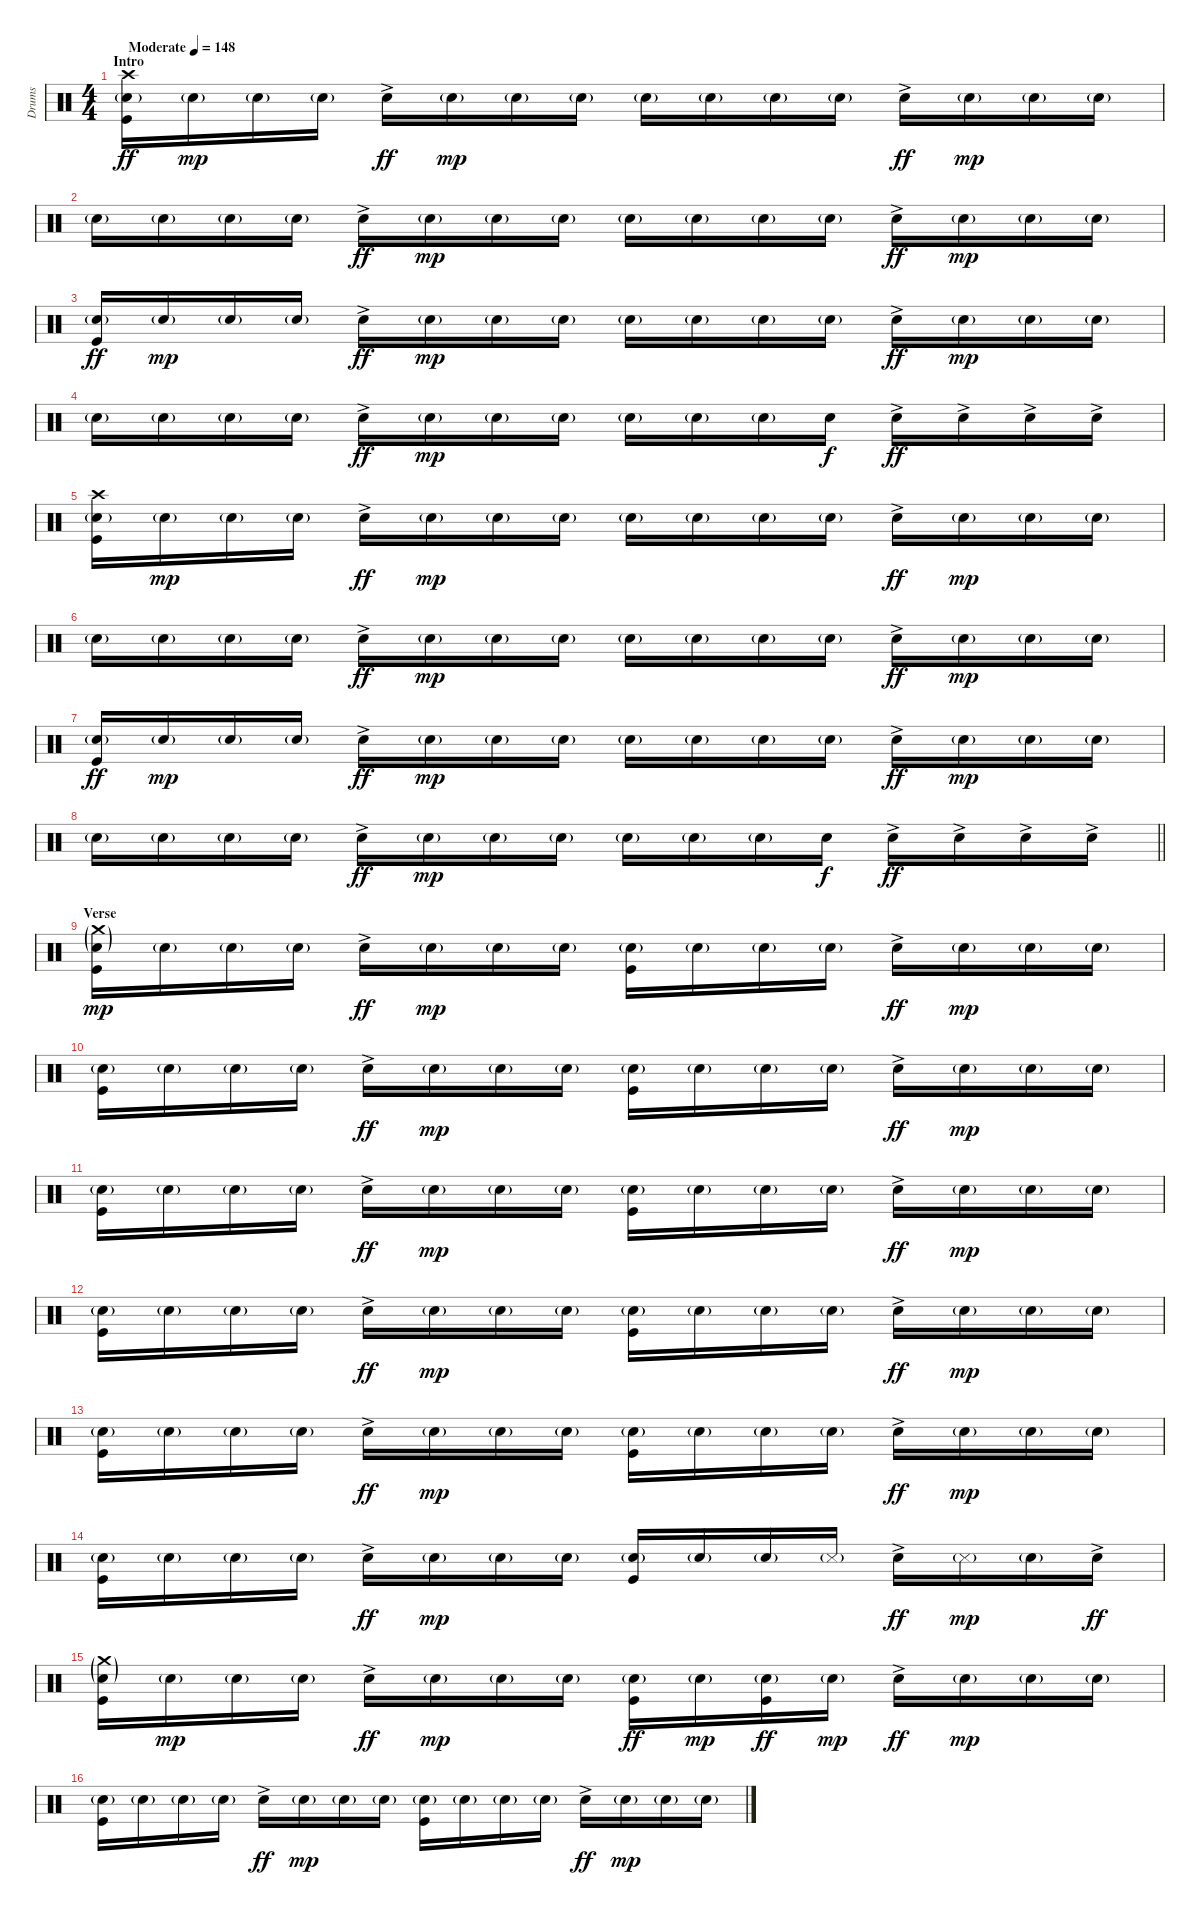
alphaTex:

\track ("Drums" "Drums") {instrument percussion}
\staff {score}
\articulation defaults
\ts (4 4)
\section ("" "Intro")
\tempo (148 "Moderate")
\clef neutral
\ks c
("Crash high (hit)" "Snare (hit) 2"{g} "Kick (hit)").16{dy ff} "Snare (hit) 2"{g}.16{dy mp} "Snare (hit) 2"{g}.16 "Snare (hit) 2"{g}.16 "Electric Snare (hit)"{ac}.16{dy ff} "Snare (hit) 2"{g}.16{dy mp} "Snare (hit) 2"{g}.16 "Snare (hit) 2"{g}.16 "Snare (hit) 2"{g}.16 "Snare (hit) 2"{g}.16 "Snare (hit) 2"{g}.16 "Snare (hit) 2"{g}.16 "Electric Snare (hit)"{ac}.16{dy ff} "Snare (hit) 2"{g}.16{dy mp} "Snare (hit) 2"{g}.16 "Snare (hit) 2"{g}.16 |
"Snare (hit) 2"{g}.16 "Snare (hit) 2"{g}.16 "Snare (hit) 2"{g}.16 "Snare (hit) 2"{g}.16 "Electric Snare (hit)"{ac}.16{dy ff} "Snare (hit) 2"{g}.16{dy mp} "Snare (hit) 2"{g}.16 "Snare (hit) 2"{g}.16 "Snare (hit) 2"{g}.16 "Snare (hit) 2"{g}.16 "Snare (hit) 2"{g}.16 "Snare (hit) 2"{g}.16 "Electric Snare (hit)"{ac}.16{dy ff} "Snare (hit) 2"{g}.16{dy mp} "Snare (hit) 2"{g}.16 "Snare (hit) 2"{g}.16 |
("Snare (hit) 2"{g} "Kick (hit)").16{dy ff} "Snare (hit) 2"{g}.16{dy mp} "Snare (hit) 2"{g}.16 "Snare (hit) 2"{g}.16 "Electric Snare (hit)"{ac}.16{dy ff} "Snare (hit) 2"{g}.16{dy mp} "Snare (hit) 2"{g}.16 "Snare (hit) 2"{g}.16 "Snare (hit) 2"{g}.16 "Snare (hit) 2"{g}.16 "Snare (hit) 2"{g}.16 "Snare (hit) 2"{g}.16 "Electric Snare (hit)"{ac}.16{dy ff} "Snare (hit) 2"{g}.16{dy mp} "Snare (hit) 2"{g}.16 "Snare (hit) 2"{g}.16 |
"Snare (hit) 2"{g}.16 "Snare (hit) 2"{g}.16 "Snare (hit) 2"{g}.16 "Snare (hit) 2"{g}.16 "Electric Snare (hit)"{ac}.16{dy ff} "Snare (hit) 2"{g}.16{dy mp} "Snare (hit) 2"{g}.16 "Snare (hit) 2"{g}.16 "Snare (hit) 2"{g}.16 "Snare (hit) 2"{g}.16 "Snare (hit) 2"{g}.16 "Electric Snare (hit)".16{dy f} "Electric Snare (hit)"{ac}.16{dy ff} "Electric Snare (hit)"{ac}.16 "Electric Snare (hit)"{ac}.16 "Electric Snare (hit)"{ac}.16 |
("Crash high (hit)" "Snare (hit) 2"{g} "Kick (hit)").16 "Snare (hit) 2"{g}.16{dy mp} "Snare (hit) 2"{g}.16 "Snare (hit) 2"{g}.16 "Electric Snare (hit)"{ac}.16{dy ff} "Snare (hit) 2"{g}.16{dy mp} "Snare (hit) 2"{g}.16 "Snare (hit) 2"{g}.16 "Snare (hit) 2"{g}.16 "Snare (hit) 2"{g}.16 "Snare (hit) 2"{g}.16 "Snare (hit) 2"{g}.16 "Electric Snare (hit)"{ac}.16{dy ff} "Snare (hit) 2"{g}.16{dy mp} "Snare (hit) 2"{g}.16 "Snare (hit) 2"{g}.16 |
"Snare (hit) 2"{g}.16 "Snare (hit) 2"{g}.16 "Snare (hit) 2"{g}.16 "Snare (hit) 2"{g}.16 "Electric Snare (hit)"{ac}.16{dy ff} "Snare (hit) 2"{g}.16{dy mp} "Snare (hit) 2"{g}.16 "Snare (hit) 2"{g}.16 "Snare (hit) 2"{g}.16 "Snare (hit) 2"{g}.16 "Snare (hit) 2"{g}.16 "Snare (hit) 2"{g}.16 "Electric Snare (hit)"{ac}.16{dy ff} "Snare (hit) 2"{g}.16{dy mp} "Snare (hit) 2"{g}.16 "Snare (hit) 2"{g}.16 |
("Snare (hit) 2"{g} "Kick (hit)").16{dy ff} "Snare (hit) 2"{g}.16{dy mp} "Snare (hit) 2"{g}.16 "Snare (hit) 2"{g}.16 "Electric Snare (hit)"{ac}.16{dy ff} "Snare (hit) 2"{g}.16{dy mp} "Snare (hit) 2"{g}.16 "Snare (hit) 2"{g}.16 "Snare (hit) 2"{g}.16 "Snare (hit) 2"{g}.16 "Snare (hit) 2"{g}.16 "Snare (hit) 2"{g}.16 "Electric Snare (hit)"{ac}.16{dy ff} "Snare (hit) 2"{g}.16{dy mp} "Snare (hit) 2"{g}.16 "Snare (hit) 2"{g}.16 |
\barLineRight lightlight "Snare (hit) 2"{g}.16 "Snare (hit) 2"{g}.16 "Snare (hit) 2"{g}.16 "Snare (hit) 2"{g}.16 "Electric Snare (hit)"{ac}.16{dy ff} "Snare (hit) 2"{g}.16{dy mp} "Snare (hit) 2"{g}.16 "Snare (hit) 2"{g}.16 "Snare (hit) 2"{g}.16 "Snare (hit) 2"{g}.16 "Snare (hit) 2"{g}.16 "Electric Snare (hit)".16{dy f} "Electric Snare (hit)"{ac}.16{dy ff} "Electric Snare (hit)"{ac}.16 "Electric Snare (hit)"{ac}.16 "Electric Snare (hit)"{ac}.16
|
\section ("" "Verse")
("Crash medium (hit)"{g} "Snare (hit) 2"{g} "Kick (hit)").16{dy mp beam Down} "Snare (hit) 2"{g}.16{beam Down} "Snare (hit) 2"{g}.16{beam Down} "Snare (hit) 2"{g}.16{beam Down} "Electric Snare (hit)"{ac}.16{dy ff} "Snare (hit) 2"{g}.16{dy mp} "Snare (hit) 2"{g}.16 "Snare (hit) 2"{g}.16 ("Snare (hit) 2"{g} "Kick (hit)").16{beam Down} "Snare (hit) 2"{g}.16{beam Down} "Snare (hit) 2"{g}.16{beam Down} "Snare (hit) 2"{g}.16{beam Down} "Electric Snare (hit)"{ac}.16{dy ff} "Snare (hit) 2"{g}.16{dy mp} "Snare (hit) 2"{g}.16 "Snare (hit) 2"{g}.16 |
("Snare (hit) 2"{g} "Kick (hit)").16{beam Down} "Snare (hit) 2"{g}.16{beam Down} "Snare (hit) 2"{g}.16{beam Down} "Snare (hit) 2"{g}.16{beam Down} "Electric Snare (hit)"{ac}.16{dy ff} "Snare (hit) 2"{g}.16{dy mp} "Snare (hit) 2"{g}.16 "Snare (hit) 2"{g}.16 ("Snare (hit) 2"{g} "Kick (hit)").16{beam Down} "Snare (hit) 2"{g}.16{beam Down} "Snare (hit) 2"{g}.16{beam Down} "Snare (hit) 2"{g}.16{beam Down} "Electric Snare (hit)"{ac}.16{dy ff} "Snare (hit) 2"{g}.16{dy mp} "Snare (hit) 2"{g}.16 "Snare (hit) 2"{g}.16 |
("Snare (hit) 2"{g} "Kick (hit)").16{beam Down} "Snare (hit) 2"{g}.16{beam Down} "Snare (hit) 2"{g}.16{beam Down} "Snare (hit) 2"{g}.16{beam Down} "Electric Snare (hit)"{ac}.16{dy ff} "Snare (hit) 2"{g}.16{dy mp} "Snare (hit) 2"{g}.16 "Snare (hit) 2"{g}.16 ("Snare (hit) 2"{g} "Kick (hit)").16{beam Down} "Snare (hit) 2"{g}.16{beam Down} "Snare (hit) 2"{g}.16{beam Down} "Snare (hit) 2"{g}.16{beam Down} "Electric Snare (hit)"{ac}.16{dy ff} "Snare (hit) 2"{g}.16{dy mp} "Snare (hit) 2"{g}.16 "Snare (hit) 2"{g}.16 |
("Snare (hit) 2"{g} "Kick (hit)").16{beam Down} "Snare (hit) 2"{g}.16{beam Down} "Snare (hit) 2"{g}.16{beam Down} "Snare (hit) 2"{g}.16{beam Down} "Electric Snare (hit)"{ac}.16{dy ff} "Snare (hit) 2"{g}.16{dy mp} "Snare (hit) 2"{g}.16 "Snare (hit) 2"{g}.16 ("Snare (hit) 2"{g} "Kick (hit)").16{beam Down} "Snare (hit) 2"{g}.16{beam Down} "Snare (hit) 2"{g}.16{beam Down} "Snare (hit) 2"{g}.16{beam Down} "Electric Snare (hit)"{ac}.16{dy ff} "Snare (hit) 2"{g}.16{dy mp} "Snare (hit) 2"{g}.16 "Snare (hit) 2"{g}.16 |
("Snare (hit) 2"{g} "Kick (hit)").16{beam Down} "Snare (hit) 2"{g}.16{beam Down} "Snare (hit) 2"{g}.16{beam Down} "Snare (hit) 2"{g}.16{beam Down} "Electric Snare (hit)"{ac}.16{dy ff} "Snare (hit) 2"{g}.16{dy mp} "Snare (hit) 2"{g}.16 "Snare (hit) 2"{g}.16 ("Snare (hit) 2"{g} "Kick (hit)").16{beam Down} "Snare (hit) 2"{g}.16{beam Down} "Snare (hit) 2"{g}.16{beam Down} "Snare (hit) 2"{g}.16{beam Down} "Electric Snare (hit)"{ac}.16{dy ff} "Snare (hit) 2"{g}.16{dy mp} "Snare (hit) 2"{g}.16 "Snare (hit) 2"{g}.16 |
("Snare (hit) 2"{g} "Kick (hit)").16{beam Down} "Snare (hit) 2"{g}.16{beam Down} "Snare (hit) 2"{g}.16{beam Down} "Snare (hit) 2"{g}.16{beam Down} "Electric Snare (hit)"{ac}.16{dy ff} "Snare (hit) 2"{g}.16{dy mp} "Snare (hit) 2"{g}.16 "Snare (hit) 2"{g}.16 ("Snare (hit) 2"{g} "Kick (hit)").16 "Snare (hit) 2"{g}.16 "Snare (hit) 2"{g}.16 "Snare (side stick) 3"{g}.16 "Electric Snare (hit)"{ac}.16{dy ff} "Snare (side stick) 3"{g}.16{dy mp} "Snare (hit) 2"{g}.16 "Electric Snare (hit)"{ac}.16{dy ff} |
("Crash medium (hit)"{g} "Snare (hit) 2"{g} "Kick (hit)").16{beam Down} "Snare (hit) 2"{g}.16{dy mp beam Down} "Snare (hit) 2"{g}.16{beam Down} "Snare (hit) 2"{g}.16{beam Down} "Electric Snare (hit)"{ac}.16{dy ff} "Snare (hit) 2"{g}.16{dy mp} "Snare (hit) 2"{g}.16 "Snare (hit) 2"{g}.16 ("Snare (hit) 2"{g} "Kick (hit)").16{dy ff beam Down} "Snare (hit) 2"{g}.16{dy mp beam Down} ("Snare (hit) 2"{g} "Kick (hit)").16{dy ff beam Down} "Snare (hit) 2"{g}.16{dy mp beam Down} "Electric Snare (hit)"{ac}.16{dy ff} "Snare (hit) 2"{g}.16{dy mp} "Snare (hit) 2"{g}.16 "Snare (hit) 2"{g}.16 |
("Snare (hit) 2"{g} "Kick (hit)").16{beam Down} "Snare (hit) 2"{g}.16{beam Down} "Snare (hit) 2"{g}.16{beam Down} "Snare (hit) 2"{g}.16{beam Down} "Electric Snare (hit)"{ac}.16{dy ff} "Snare (hit) 2"{g}.16{dy mp} "Snare (hit) 2"{g}.16 "Snare (hit) 2"{g}.16 ("Snare (hit) 2"{g} "Kick (hit)").16{beam Down} "Snare (hit) 2"{g}.16{beam Down} "Snare (hit) 2"{g}.16{beam Down} "Snare (hit) 2"{g}.16{beam Down} "Electric Snare (hit)"{ac}.16{dy ff} "Snare (hit) 2"{g}.16{dy mp} "Snare (hit) 2"{g}.16 "Snare (hit) 2"{g}.16
